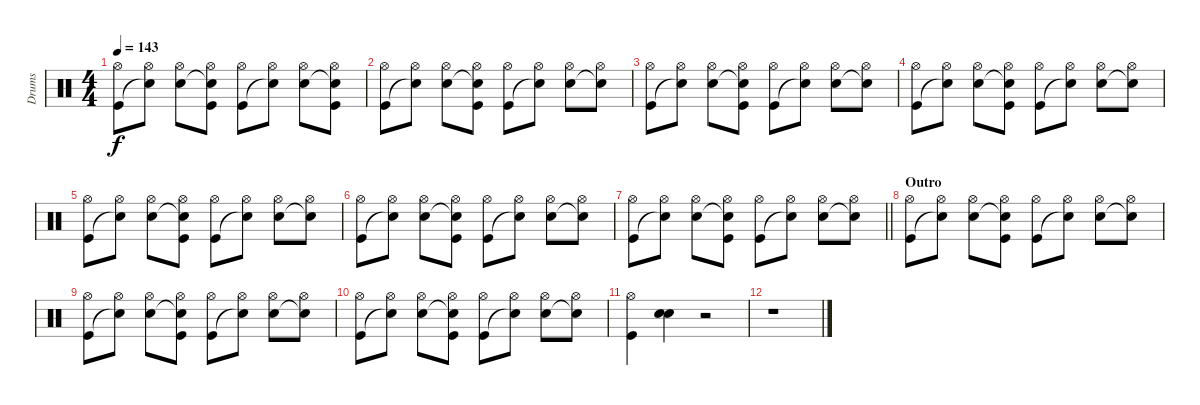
\track ("Drums" "Drums") {instrument percussion}
\staff {score}
\articulation defaults
\ts (4 4)
\tempo 143
\clef neutral
\ks c
("Hi-Hat (open)" "Kick (hit)").8{dy f} ("Hi-Hat (open)" "Snare (hit)"{t}).8 ("Hi-Hat (open)" "Snare (hit) 2").8 ("Hi-Hat (open)" "Snare (hit)"{t} "Kick (hit)").8 ("Hi-Hat (open)" "Kick (hit)").8 ("Hi-Hat (open)" "Snare (hit)"{t}).8 ("Hi-Hat (open)" "Snare (hit) 2").8 ("Hi-Hat (open)" "Snare (hit)"{t} "Kick (hit)").8 |
("Hi-Hat (open)" "Kick (hit)").8 ("Hi-Hat (open)" "Snare (hit)"{t}).8 ("Hi-Hat (open)" "Snare (hit) 2").8 ("Hi-Hat (open)" "Snare (hit)"{t} "Kick (hit)").8 ("Hi-Hat (open)" "Kick (hit)").8 ("Hi-Hat (open)" "Snare (hit)"{t}).8 ("Hi-Hat (open)" "Snare (hit) 2").8 ("Hi-Hat (open)" "Snare (hit)"{t}).8 |
("Hi-Hat (open)" "Kick (hit)").8 ("Hi-Hat (open)" "Snare (hit)"{t}).8 ("Hi-Hat (open)" "Snare (hit) 2").8 ("Hi-Hat (open)" "Snare (hit)"{t} "Kick (hit)").8 ("Hi-Hat (open)" "Kick (hit)").8 ("Hi-Hat (open)" "Snare (hit)"{t}).8 ("Hi-Hat (open)" "Snare (hit) 2").8 ("Hi-Hat (open)" "Snare (hit)"{t}).8 |
("Hi-Hat (open)" "Kick (hit)").8 ("Hi-Hat (open)" "Snare (hit)"{t}).8 ("Hi-Hat (open)" "Snare (hit) 2").8 ("Hi-Hat (open)" "Snare (hit)"{t} "Kick (hit)").8 ("Hi-Hat (open)" "Kick (hit)").8 ("Hi-Hat (open)" "Snare (hit)"{t}).8 ("Hi-Hat (open)" "Snare (hit) 2").8 ("Hi-Hat (open)" "Snare (hit)"{t}).8 |
("Hi-Hat (open)" "Kick (hit)").8 ("Hi-Hat (open)" "Snare (hit)"{t}).8 ("Hi-Hat (open)" "Snare (hit) 2").8 ("Hi-Hat (open)" "Snare (hit)"{t} "Kick (hit)").8 ("Hi-Hat (open)" "Kick (hit)").8 ("Hi-Hat (open)" "Snare (hit)"{t}).8 ("Hi-Hat (open)" "Snare (hit) 2").8 ("Hi-Hat (open)" "Snare (hit)"{t}).8 |
("Hi-Hat (open)" "Kick (hit)").8 ("Hi-Hat (open)" "Snare (hit)"{t}).8 ("Hi-Hat (open)" "Snare (hit) 2").8 ("Hi-Hat (open)" "Snare (hit)"{t} "Kick (hit)").8 ("Hi-Hat (open)" "Kick (hit)").8 ("Hi-Hat (open)" "Snare (hit)"{t}).8 ("Hi-Hat (open)" "Snare (hit) 2").8 ("Hi-Hat (open)" "Snare (hit)"{t}).8 |
\barLineRight lightlight
("Hi-Hat (open)" "Kick (hit)").8 ("Hi-Hat (open)" "Snare (hit)"{t}).8 ("Hi-Hat (open)" "Snare (hit) 2").8 ("Hi-Hat (open)" "Snare (hit)"{t} "Kick (hit)").8 ("Hi-Hat (open)" "Kick (hit)").8 ("Hi-Hat (open)" "Snare (hit)"{t}).8 ("Hi-Hat (open)" "Snare (hit) 2").8 ("Hi-Hat (open)" "Snare (hit)"{t}).8 |
\section ("" "Outro")
("Hi-Hat (open)" "Kick (hit)").8 ("Hi-Hat (open)" "Snare (hit)"{t}).8 ("Hi-Hat (open)" "Snare (hit) 2").8 ("Hi-Hat (open)" "Snare (hit)"{t} "Kick (hit)").8 ("Hi-Hat (open)" "Kick (hit)").8 ("Hi-Hat (open)" "Snare (hit)"{t}).8 ("Hi-Hat (open)" "Snare (hit) 2").8 ("Hi-Hat (open)" "Snare (hit)"{t}).8 |
("Hi-Hat (open)" "Kick (hit)").8 ("Hi-Hat (open)" "Snare (hit)"{t}).8 ("Hi-Hat (open)" "Snare (hit) 2").8 ("Hi-Hat (open)" "Snare (hit)"{t} "Kick (hit)").8 ("Hi-Hat (open)" "Kick (hit)").8 ("Hi-Hat (open)" "Snare (hit)"{t}).8 ("Hi-Hat (open)" "Snare (hit) 2").8 ("Hi-Hat (open)" "Snare (hit)"{t}).8 |
("Hi-Hat (open)" "Kick (hit)").8 ("Hi-Hat (open)" "Snare (hit)"{t}).8 ("Hi-Hat (open)" "Snare (hit) 2").8 ("Hi-Hat (open)" "Snare (hit)"{t} "Kick (hit)").8 ("Hi-Hat (open)" "Kick (hit)").8 ("Hi-Hat (open)" "Snare (hit)"{t}).8 ("Hi-Hat (open)" "Snare (hit) 2").8 ("Hi-Hat (open)" "Snare (hit)"{t}).8 |
("Hi-Hat (open)" "Kick (hit)").4 ("Electric Snare (hit)" "Snare (hit) 2").4 r.2 |
r.1
